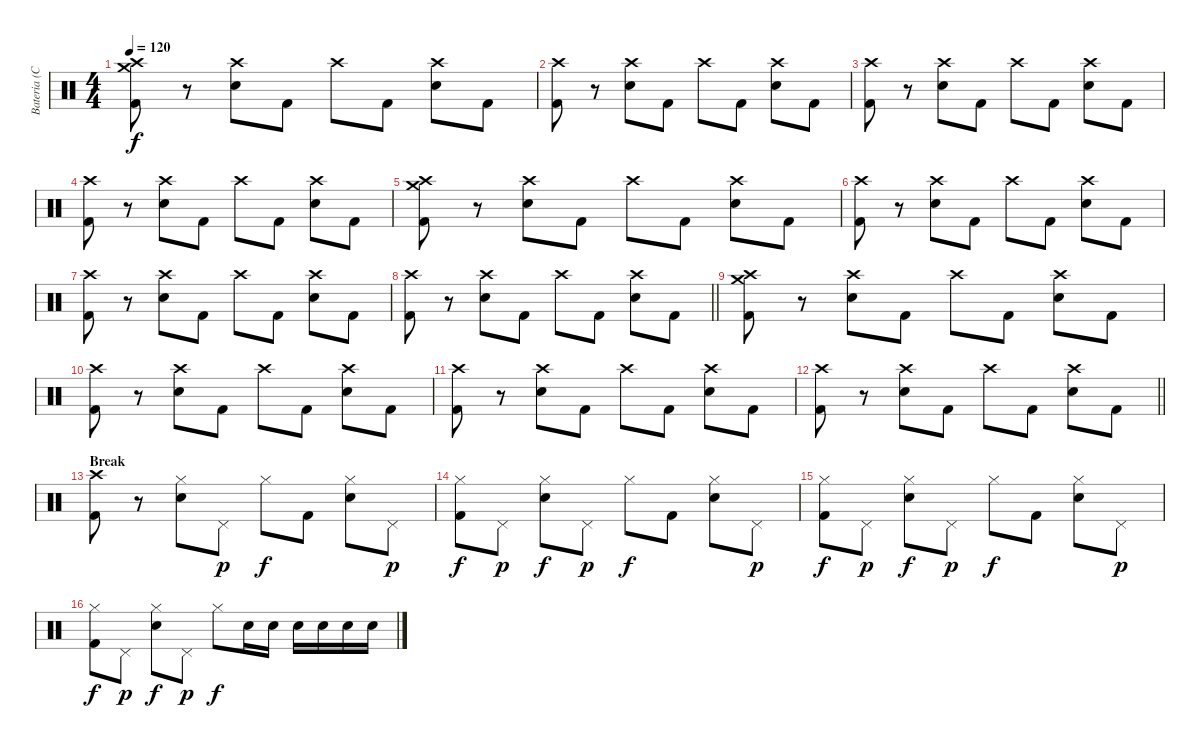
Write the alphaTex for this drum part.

\track ("Bateria (Ciro)" "Bateria (C") {instrument percussion}
\staff {score}
\articulation defaults
\ts (4 4)
\tempo 120
\clef neutral
\ks c
("Crash medium (hit)" "Crash high (hit)" "Kick (hit) 2").8{dy f} r.8 ("Crash high (hit)" "Snare (hit) 2").8 "Kick (hit) 2".8 "Crash high (hit)".8 "Kick (hit) 2".8 ("Crash high (hit)" "Snare (hit) 2").8 "Kick (hit) 2".8 |
("Crash high (hit)" "Kick (hit) 2").8 r.8 ("Crash high (hit)" "Snare (hit) 2").8 "Kick (hit) 2".8 "Crash high (hit)".8 "Kick (hit) 2".8 ("Crash high (hit)" "Snare (hit) 2").8 "Kick (hit) 2".8 |
("Crash high (hit)" "Kick (hit) 2").8 r.8 ("Crash high (hit)" "Snare (hit) 2").8 "Kick (hit) 2".8 "Crash high (hit)".8 "Kick (hit) 2".8 ("Crash high (hit)" "Snare (hit) 2").8 "Kick (hit) 2".8 |
("Crash high (hit)" "Kick (hit) 2").8 r.8 ("Crash high (hit)" "Snare (hit) 2").8 "Kick (hit) 2".8 "Crash high (hit)".8 "Kick (hit) 2".8 ("Crash high (hit)" "Snare (hit) 2").8 "Kick (hit) 2".8 |
("Crash medium (hit)" "Crash high (hit)" "Kick (hit) 2").8 r.8 ("Crash high (hit)" "Snare (hit) 2").8 "Kick (hit) 2".8 "Crash high (hit)".8 "Kick (hit) 2".8 ("Crash high (hit)" "Snare (hit) 2").8 "Kick (hit) 2".8 |
("Crash high (hit)" "Kick (hit) 2").8 r.8 ("Crash high (hit)" "Snare (hit) 2").8 "Kick (hit) 2".8 "Crash high (hit)".8 "Kick (hit) 2".8 ("Crash high (hit)" "Snare (hit) 2").8 "Kick (hit) 2".8 |
("Crash high (hit)" "Kick (hit) 2").8 r.8 ("Crash high (hit)" "Snare (hit) 2").8 "Kick (hit) 2".8 "Crash high (hit)".8 "Kick (hit) 2".8 ("Crash high (hit)" "Snare (hit) 2").8 "Kick (hit) 2".8 |
\barLineRight lightlight
("Crash high (hit)" "Kick (hit) 2").8 r.8 ("Crash high (hit)" "Snare (hit) 2").8 "Kick (hit) 2".8 "Crash high (hit)".8 "Kick (hit) 2".8 ("Crash high (hit)" "Snare (hit) 2").8 "Kick (hit) 2".8 |
("Crash medium (hit)" "Crash high (hit)" "Kick (hit) 2").8 r.8 ("Crash high (hit)" "Snare (hit) 2").8 "Kick (hit) 2".8 "Crash high (hit)".8 "Kick (hit) 2".8 ("Crash high (hit)" "Snare (hit) 2").8 "Kick (hit) 2".8 |
("Crash high (hit)" "Kick (hit) 2").8 r.8 ("Crash high (hit)" "Snare (hit) 2").8 "Kick (hit) 2".8 "Crash high (hit)".8 "Kick (hit) 2".8 ("Crash high (hit)" "Snare (hit) 2").8 "Kick (hit) 2".8 |
("Crash high (hit)" "Kick (hit) 2").8 r.8 ("Crash high (hit)" "Snare (hit) 2").8 "Kick (hit) 2".8 "Crash high (hit)".8 "Kick (hit) 2".8 ("Crash high (hit)" "Snare (hit) 2").8 "Kick (hit) 2".8 |
\barLineRight lightlight
("Crash high (hit)" "Kick (hit) 2").8 r.8 ("Crash high (hit)" "Snare (hit) 2").8 "Kick (hit) 2".8 "Crash high (hit)".8 "Kick (hit) 2".8 ("Crash high (hit)" "Snare (hit) 2").8 "Kick (hit) 2".8 |
\section ("" "Break")
("Crash high (hit)" "Kick (hit) 2").8 r.8 ("Hi-Hat (closed)" "Snare (hit) 2").8 "Pedal Hi-Hat (hit)".8{dy p} "Hi-Hat (closed)".8{dy f} "Kick (hit) 2".8 ("Hi-Hat (closed)" "Snare (hit) 2").8 "Pedal Hi-Hat (hit)".8{dy p} |
("Hi-Hat (closed)" "Kick (hit) 2").8{dy f} "Pedal Hi-Hat (hit)".8{dy p} ("Hi-Hat (closed)" "Snare (hit) 2").8{dy f} "Pedal Hi-Hat (hit)".8{dy p} "Hi-Hat (closed)".8{dy f} "Kick (hit) 2".8 ("Hi-Hat (closed)" "Snare (hit) 2").8 "Pedal Hi-Hat (hit)".8{dy p} |
("Hi-Hat (closed)" "Kick (hit) 2").8{dy f} "Pedal Hi-Hat (hit)".8{dy p} ("Hi-Hat (closed)" "Snare (hit) 2").8{dy f} "Pedal Hi-Hat (hit)".8{dy p} "Hi-Hat (closed)".8{dy f} "Kick (hit) 2".8 ("Hi-Hat (closed)" "Snare (hit) 2").8 "Pedal Hi-Hat (hit)".8{dy p} |
("Hi-Hat (closed)" "Kick (hit) 2").8{dy f} "Pedal Hi-Hat (hit)".8{dy p} ("Hi-Hat (closed)" "Snare (hit) 2").8{dy f} "Pedal Hi-Hat (hit)".8{dy p} "Hi-Hat (closed)".8{dy f} "Snare (hit) 2".16 "Snare (hit) 2".16 "Snare (hit) 2".16 "Snare (hit) 2".16 "Snare (hit) 2".16 "Snare (hit) 2".16
